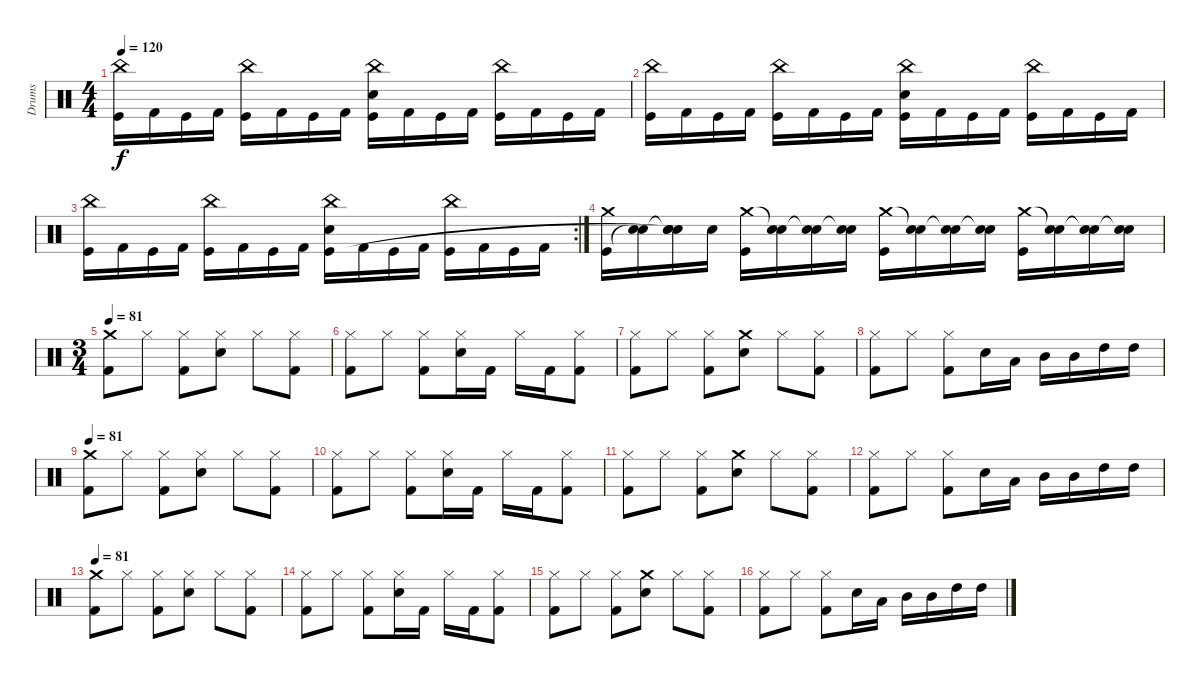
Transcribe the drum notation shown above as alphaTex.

\track ("Drums" "Drums") {instrument percussion}
\staff {score}
\articulation defaults
\ts (4 4)
\tempo 120
\clef neutral
\ks c
("China (hit)" "Kick (hit)").16{dy f} "Kick (hit) 2".16 "Kick (hit)".16 "Kick (hit) 2".16 ("China (hit)" "Kick (hit)").16 "Kick (hit) 2".16 "Kick (hit)".16 "Kick (hit) 2".16 ("China (hit)" "Electric Snare (hit)" "Kick (hit)").16 "Kick (hit) 2".16 "Kick (hit)".16 "Kick (hit) 2".16 ("China (hit)" "Kick (hit)").16 "Kick (hit) 2".16 "Kick (hit)".16 "Kick (hit) 2".16 |
("China (hit)" "Kick (hit)").16 "Kick (hit) 2".16 "Kick (hit)".16 "Kick (hit) 2".16 ("China (hit)" "Kick (hit)").16 "Kick (hit) 2".16 "Kick (hit)".16 "Kick (hit) 2".16 ("China (hit)" "Electric Snare (hit)" "Kick (hit)").16 "Kick (hit) 2".16 "Kick (hit)".16 "Kick (hit) 2".16 ("China (hit)" "Kick (hit)").16 "Kick (hit) 2".16 "Kick (hit)".16 "Kick (hit) 2".16 |
\rc 2
("China (hit)" "Kick (hit)").16 "Kick (hit) 2".16 "Kick (hit)".16 "Kick (hit) 2".16 ("China (hit)" "Kick (hit)").16 "Kick (hit) 2".16 "Kick (hit)".16 "Kick (hit) 2".16 ("China (hit)" "Electric Snare (hit)" "Kick (hit)").16 "Kick (hit) 2".16 "Kick (hit)".16 "Kick (hit) 2".16 ("China (hit)" "Kick (hit)").16 "Kick (hit) 2".16 "Kick (hit)".16 "Kick (hit) 2".16 |
("Crash medium (hit)" "Kick (hit)").16 ("Electric Snare (hit)" "Snare (hit)"{t}).16 ("Snare (hit)"{t} "Electric Snare (hit)" "Snare (hit)"{t}).16 "Electric Snare (hit)".16 ("Crash medium (hit)" "Kick (hit)").16 ("Snare (hit)"{t} "Electric Snare (hit)").16 ("Snare (hit)"{t} "Electric Snare (hit)").16 ("Snare (hit)"{t} "Electric Snare (hit)").16 ("Crash medium (hit)" "Kick (hit)").16 ("Snare (hit)"{t} "Electric Snare (hit)").16 ("Snare (hit)"{t} "Electric Snare (hit)").16 ("Snare (hit)"{t} "Electric Snare (hit)").16 ("Crash medium (hit)" "Kick (hit)").16 ("Snare (hit)"{t} "Electric Snare (hit)").16 ("Snare (hit)"{t} "Electric Snare (hit)").16 ("Snare (hit)"{t} "Electric Snare (hit)").16 |
\ts (3 4)
\tempo 81
("Crash medium (hit)" "Kick (hit) 2").8 "Hi-Hat (closed)".8 ("Hi-Hat (closed)" "Kick (hit) 2").8 ("Hi-Hat (closed)" "Electric Snare (hit)").8 "Hi-Hat (closed)".8 ("Hi-Hat (closed)" "Kick (hit) 2").8 |
("Hi-Hat (closed)" "Kick (hit) 2").8 "Hi-Hat (closed)".8 ("Hi-Hat (closed)" "Kick (hit) 2").8 ("Hi-Hat (closed)" "Electric Snare (hit)").16 "Kick (hit) 2".16 "Hi-Hat (closed)".16 "Kick (hit) 2".16 ("Hi-Hat (closed)" "Kick (hit) 2").8 |
("Hi-Hat (closed)" "Kick (hit) 2").8 "Hi-Hat (closed)".8 ("Hi-Hat (closed)" "Kick (hit) 2").8 ("Crash medium (hit)" "Electric Snare (hit)").8 "Hi-Hat (closed)".8 ("Hi-Hat (closed)" "Kick (hit) 2").8 |
("Hi-Hat (closed)" "Kick (hit) 2").8 "Hi-Hat (closed)".8 ("Hi-Hat (closed)" "Kick (hit) 2").8 "Electric Snare (hit)".16 "Low Tom (hit)".16 "Mid Tom (hit)".16 "Mid Tom (hit)".16 "High Tom (hit)".16 "High Tom (hit)".16 |
\tempo 81
("Crash medium (hit)" "Kick (hit) 2").8 "Hi-Hat (closed)".8 ("Hi-Hat (closed)" "Kick (hit) 2").8 ("Hi-Hat (closed)" "Electric Snare (hit)").8 "Hi-Hat (closed)".8 ("Hi-Hat (closed)" "Kick (hit) 2").8 |
("Hi-Hat (closed)" "Kick (hit) 2").8 "Hi-Hat (closed)".8 ("Hi-Hat (closed)" "Kick (hit) 2").8 ("Hi-Hat (closed)" "Electric Snare (hit)").16 "Kick (hit) 2".16 "Hi-Hat (closed)".16 "Kick (hit) 2".16 ("Hi-Hat (closed)" "Kick (hit) 2").8 |
("Hi-Hat (closed)" "Kick (hit) 2").8 "Hi-Hat (closed)".8 ("Hi-Hat (closed)" "Kick (hit) 2").8 ("Crash medium (hit)" "Electric Snare (hit)").8 "Hi-Hat (closed)".8 ("Hi-Hat (closed)" "Kick (hit) 2").8 |
("Hi-Hat (closed)" "Kick (hit) 2").8 "Hi-Hat (closed)".8 ("Hi-Hat (closed)" "Kick (hit) 2").8 "Electric Snare (hit)".16 "Low Tom (hit)".16 "Mid Tom (hit)".16 "Mid Tom (hit)".16 "High Tom (hit)".16 "High Tom (hit)".16 |
\tempo 81
("Crash medium (hit)" "Kick (hit) 2").8 "Hi-Hat (closed)".8 ("Hi-Hat (closed)" "Kick (hit) 2").8 ("Hi-Hat (closed)" "Electric Snare (hit)").8 "Hi-Hat (closed)".8 ("Hi-Hat (closed)" "Kick (hit) 2").8 |
("Hi-Hat (closed)" "Kick (hit) 2").8 "Hi-Hat (closed)".8 ("Hi-Hat (closed)" "Kick (hit) 2").8 ("Hi-Hat (closed)" "Electric Snare (hit)").16 "Kick (hit) 2".16 "Hi-Hat (closed)".16 "Kick (hit) 2".16 ("Hi-Hat (closed)" "Kick (hit) 2").8 |
("Hi-Hat (closed)" "Kick (hit) 2").8 "Hi-Hat (closed)".8 ("Hi-Hat (closed)" "Kick (hit) 2").8 ("Crash medium (hit)" "Electric Snare (hit)").8 "Hi-Hat (closed)".8 ("Hi-Hat (closed)" "Kick (hit) 2").8 |
("Hi-Hat (closed)" "Kick (hit) 2").8 "Hi-Hat (closed)".8 ("Hi-Hat (closed)" "Kick (hit) 2").8 "Electric Snare (hit)".16 "Low Tom (hit)".16 "Mid Tom (hit)".16 "Mid Tom (hit)".16 "High Tom (hit)".16 "High Tom (hit)".16
